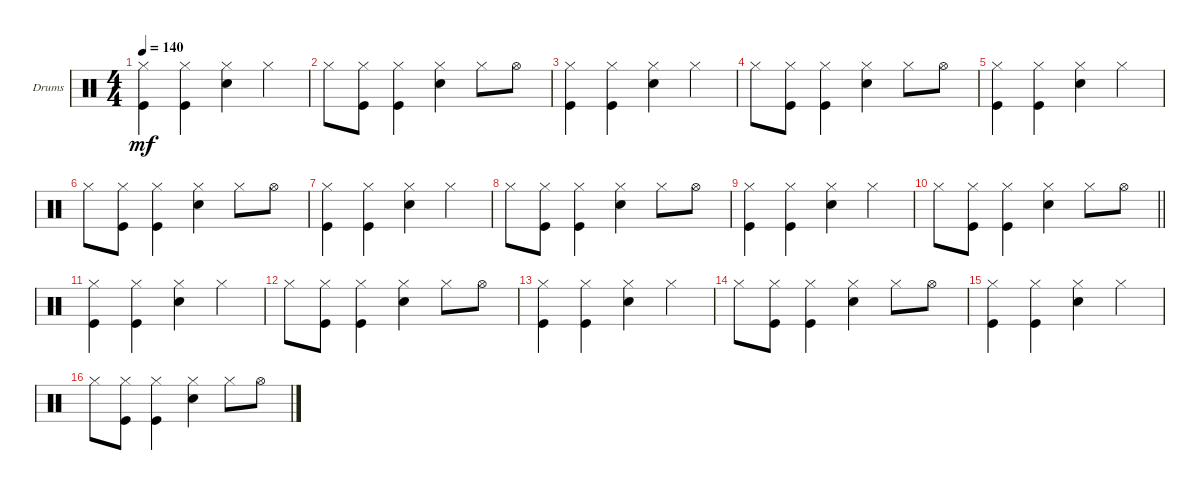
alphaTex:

\defaultSystemsLayout 4
\bracketExtendMode groupsimilarinstruments
\firstSystemTrackNameOrientation horizontal
\otherSystemsTrackNameOrientation horizontal
\track ("Drumkit" "Drums") {instrument percussion}
\staff {score}
\articulation defaults
\ts (4 4)
\tempo 140
\clef neutral
\ks c
("Hi-Hat (closed)" "Kick (hit)").4{dy mf} ("Hi-Hat (closed)" "Kick (hit)").4 ("Hi-Hat (closed)" "Snare (hit) 2").4 "Hi-Hat (closed)".4 |
"Hi-Hat (closed)".8 ("Hi-Hat (closed)" "Kick (hit)").8 ("Hi-Hat (closed)" "Kick (hit)").4 ("Snare (hit) 2" "Hi-Hat (closed)").4 "Hi-Hat (closed)".8 "Hi-Hat (open)".8 |
\scale
0.472222 ("Hi-Hat (closed)" "Kick (hit)").4 ("Hi-Hat (closed)" "Kick (hit)").4 ("Hi-Hat (closed)" "Snare (hit) 2").4 "Hi-Hat (closed)".4 |
\scale
0.263889 "Hi-Hat (closed)".8 ("Hi-Hat (closed)" "Kick (hit)").8 ("Hi-Hat (closed)" "Kick (hit)").4 ("Snare (hit) 2" "Hi-Hat (closed)").4 "Hi-Hat (closed)".8 "Hi-Hat (open)".8 |
\scale
0.263889 ("Hi-Hat (closed)" "Kick (hit)").4 ("Hi-Hat (closed)" "Kick (hit)").4 ("Hi-Hat (closed)" "Snare (hit) 2").4 "Hi-Hat (closed)".4 |
"Hi-Hat (closed)".8 ("Hi-Hat (closed)" "Kick (hit)").8 ("Hi-Hat (closed)" "Kick (hit)").4 ("Snare (hit) 2" "Hi-Hat (closed)").4 "Hi-Hat (closed)".8 "Hi-Hat (open)".8 |
("Hi-Hat (closed)" "Kick (hit)").4 ("Hi-Hat (closed)" "Kick (hit)").4 ("Hi-Hat (closed)" "Snare (hit) 2").4 "Hi-Hat (closed)".4 |
"Hi-Hat (closed)".8 ("Hi-Hat (closed)" "Kick (hit)").8 ("Hi-Hat (closed)" "Kick (hit)").4 ("Snare (hit) 2" "Hi-Hat (closed)").4 "Hi-Hat (closed)".8 "Hi-Hat (open)".8 |
("Hi-Hat (closed)" "Kick (hit)").4 ("Hi-Hat (closed)" "Kick (hit)").4 ("Hi-Hat (closed)" "Snare (hit) 2").4 "Hi-Hat (closed)".4 |
\barLineRight lightlight "Hi-Hat (closed)".8
("Hi-Hat (closed)" "Kick (hit)").8 ("Hi-Hat (closed)" "Kick (hit)").4 ("Snare (hit) 2" "Hi-Hat (closed)").4 "Hi-Hat (closed)".8 "Hi-Hat (open)".8 |
("Hi-Hat (closed)" "Kick (hit)").4 ("Hi-Hat (closed)" "Kick (hit)").4 ("Hi-Hat (closed)" "Snare (hit) 2").4 "Hi-Hat (closed)".4 |
"Hi-Hat (closed)".8 ("Hi-Hat (closed)" "Kick (hit)").8 ("Hi-Hat (closed)" "Kick (hit)").4 ("Snare (hit) 2" "Hi-Hat (closed)").4 "Hi-Hat (closed)".8 "Hi-Hat (open)".8 |
("Hi-Hat (closed)" "Kick (hit)").4 ("Hi-Hat (closed)" "Kick (hit)").4 ("Hi-Hat (closed)" "Snare (hit) 2").4 "Hi-Hat (closed)".4 |
"Hi-Hat (closed)".8 ("Hi-Hat (closed)" "Kick (hit)").8 ("Hi-Hat (closed)" "Kick (hit)").4 ("Snare (hit) 2" "Hi-Hat (closed)").4 "Hi-Hat (closed)".8 "Hi-Hat (open)".8 |
("Hi-Hat (closed)" "Kick (hit)").4 ("Hi-Hat (closed)" "Kick (hit)").4 ("Hi-Hat (closed)" "Snare (hit) 2").4 "Hi-Hat (closed)".4 |
"Hi-Hat (closed)".8 ("Hi-Hat (closed)" "Kick (hit)").8 ("Hi-Hat (closed)" "Kick (hit)").4 ("Snare (hit) 2" "Hi-Hat (closed)").4 "Hi-Hat (closed)".8 "Hi-Hat (open)".8
